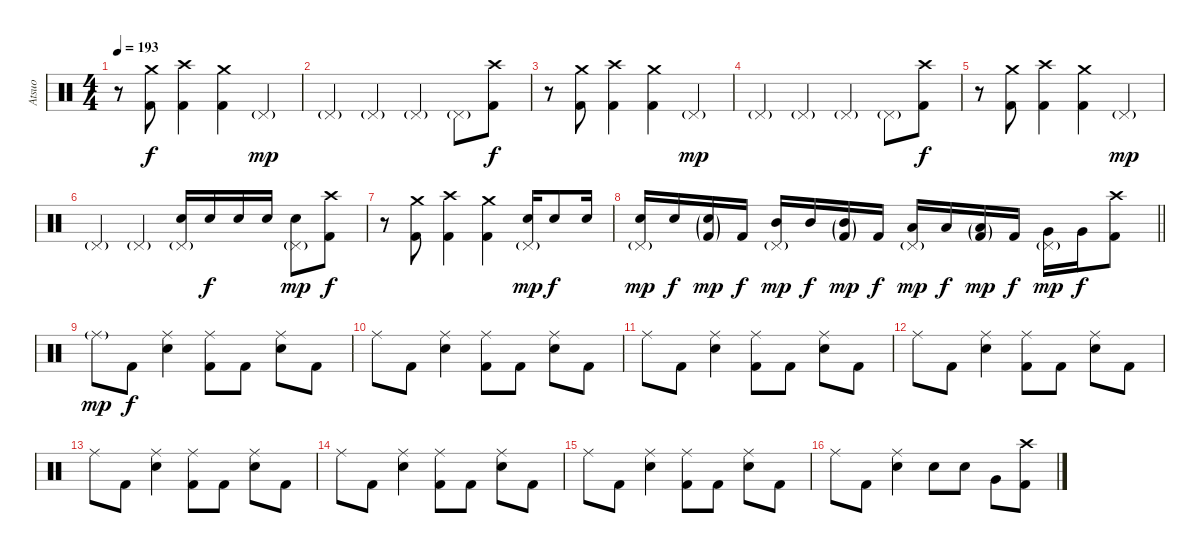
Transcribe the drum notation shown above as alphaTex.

\track ("Atsuo" "Atsuo") {instrument percussion}
\staff {score}
\articulation defaults
\ts (4 4)
\section ("" "")
\tempo 193
\clef neutral
\ks c
r.8{dy f} ("Crash medium (hit)" "Kick (hit) 2").8 ("Crash high (hit)" "Kick (hit) 2").4 ("Crash medium (hit)" "Kick (hit) 2").4 "Pedal Hi-Hat (hit)"{g}.4{dy mp} |
"Pedal Hi-Hat (hit)"{g}.4 "Pedal Hi-Hat (hit)"{g}.4 "Pedal Hi-Hat (hit)"{g}.4 "Pedal Hi-Hat (hit)"{g}.8 ("Crash high (hit)" "Kick (hit) 2").8{dy f} |
r.8 ("Crash medium (hit)" "Kick (hit) 2").8 ("Crash high (hit)" "Kick (hit) 2").4 ("Crash medium (hit)" "Kick (hit) 2").4 "Pedal Hi-Hat (hit)"{g}.4{dy mp} |
"Pedal Hi-Hat (hit)"{g}.4 "Pedal Hi-Hat (hit)"{g}.4 "Pedal Hi-Hat (hit)"{g}.4 "Pedal Hi-Hat (hit)"{g}.8 ("Crash high (hit)" "Kick (hit) 2").8{dy f} |
r.8 ("Crash medium (hit)" "Kick (hit) 2").8 ("Crash high (hit)" "Kick (hit) 2").4 ("Crash medium (hit)" "Kick (hit) 2").4 "Pedal Hi-Hat (hit)"{g}.4{dy mp} |
"Pedal Hi-Hat (hit)"{g}.4 "Pedal Hi-Hat (hit)"{g}.4 ("Pedal Hi-Hat (hit)"{g} "Electric Snare (hit)").16 "Electric Snare (hit)".16{dy f} "Electric Snare (hit)".16 "Electric Snare (hit)".16 ("Pedal Hi-Hat (hit)"{g} "Electric Snare (hit)").8{dy mp} ("Crash high (hit)" "Kick (hit) 2").8{dy f} |
r.8 ("Crash medium (hit)" "Kick (hit) 2").8 ("Crash high (hit)" "Kick (hit) 2").4 ("Crash medium (hit)" "Kick (hit) 2").4 ("Pedal Hi-Hat (hit)"{g} "Electric Snare (hit)").16{dy mp} "Electric Snare (hit)".8{dy f} "Electric Snare (hit)".16 |
\barLineRight lightlight
("Pedal Hi-Hat (hit)"{g} "Electric Snare (hit)").16{dy mp} "Electric Snare (hit)".16{dy f} ("Electric Snare (hit)"{g} "Kick (hit) 2"{g}).16{dy mp} "Kick (hit) 2".16{dy f} ("Pedal Hi-Hat (hit)"{g} "Mid Tom (hit)").16{dy mp} "Mid Tom (hit)".16{dy f} ("Mid Tom (hit)"{g} "Kick (hit) 2"{g}).16{dy mp} "Kick (hit) 2".16{dy f} ("Pedal Hi-Hat (hit)"{g} "Low Tom (hit)").16{dy mp} "Low Tom (hit)".16{dy f} ("Low Tom (hit)"{g} "Kick (hit) 2"{g}).16{dy mp} "Kick (hit) 2".16{dy f} ("Pedal Hi-Hat (hit)"{g} "Very Low Tom (hit)").16{dy mp} "Very Low Tom (hit)".16{dy f} ("Crash high (hit)" "Kick (hit) 2").8 |
\section ("" "")
"Ride (middle)"{g}.8{dy mp} "Kick (hit) 2".8{dy f} ("Ride (middle)" "Electric Snare (hit)").4 ("Ride (middle)" "Kick (hit) 2").8 "Kick (hit) 2".8 ("Ride (middle)" "Electric Snare (hit)").8 "Kick (hit) 2".8 |
"Ride (middle)".8 "Kick (hit) 2".8 ("Ride (middle)" "Electric Snare (hit)").4 ("Ride (middle)" "Kick (hit) 2").8 "Kick (hit) 2".8 ("Ride (middle)" "Electric Snare (hit)").8 "Kick (hit) 2".8 |
"Ride (middle)".8 "Kick (hit) 2".8 ("Ride (middle)" "Electric Snare (hit)").4 ("Ride (middle)" "Kick (hit) 2").8 "Kick (hit) 2".8 ("Ride (middle)" "Electric Snare (hit)").8 "Kick (hit) 2".8 |
"Ride (middle)".8 "Kick (hit) 2".8 ("Ride (middle)" "Electric Snare (hit)").4 ("Ride (middle)" "Kick (hit) 2").8 "Kick (hit) 2".8 ("Ride (middle)" "Electric Snare (hit)").8 "Kick (hit) 2".8 |
"Ride (middle)".8 "Kick (hit) 2".8 ("Ride (middle)" "Electric Snare (hit)").4 ("Ride (middle)" "Kick (hit) 2").8 "Kick (hit) 2".8 ("Ride (middle)" "Electric Snare (hit)").8 "Kick (hit) 2".8 |
"Ride (middle)".8 "Kick (hit) 2".8 ("Ride (middle)" "Electric Snare (hit)").4 ("Ride (middle)" "Kick (hit) 2").8 "Kick (hit) 2".8 ("Ride (middle)" "Electric Snare (hit)").8 "Kick (hit) 2".8 |
"Ride (middle)".8 "Kick (hit) 2".8 ("Ride (middle)" "Electric Snare (hit)").4 ("Ride (middle)" "Kick (hit) 2").8 "Kick (hit) 2".8 ("Ride (middle)" "Electric Snare (hit)").8 "Kick (hit) 2".8 |
"Ride (middle)".8 "Kick (hit) 2".8 ("Ride (middle)" "Electric Snare (hit)").4 "Electric Snare (hit)".8 "Electric Snare (hit)".8 "Very Low Tom (hit)".8 ("Crash high (hit)" "Kick (hit) 2").8
